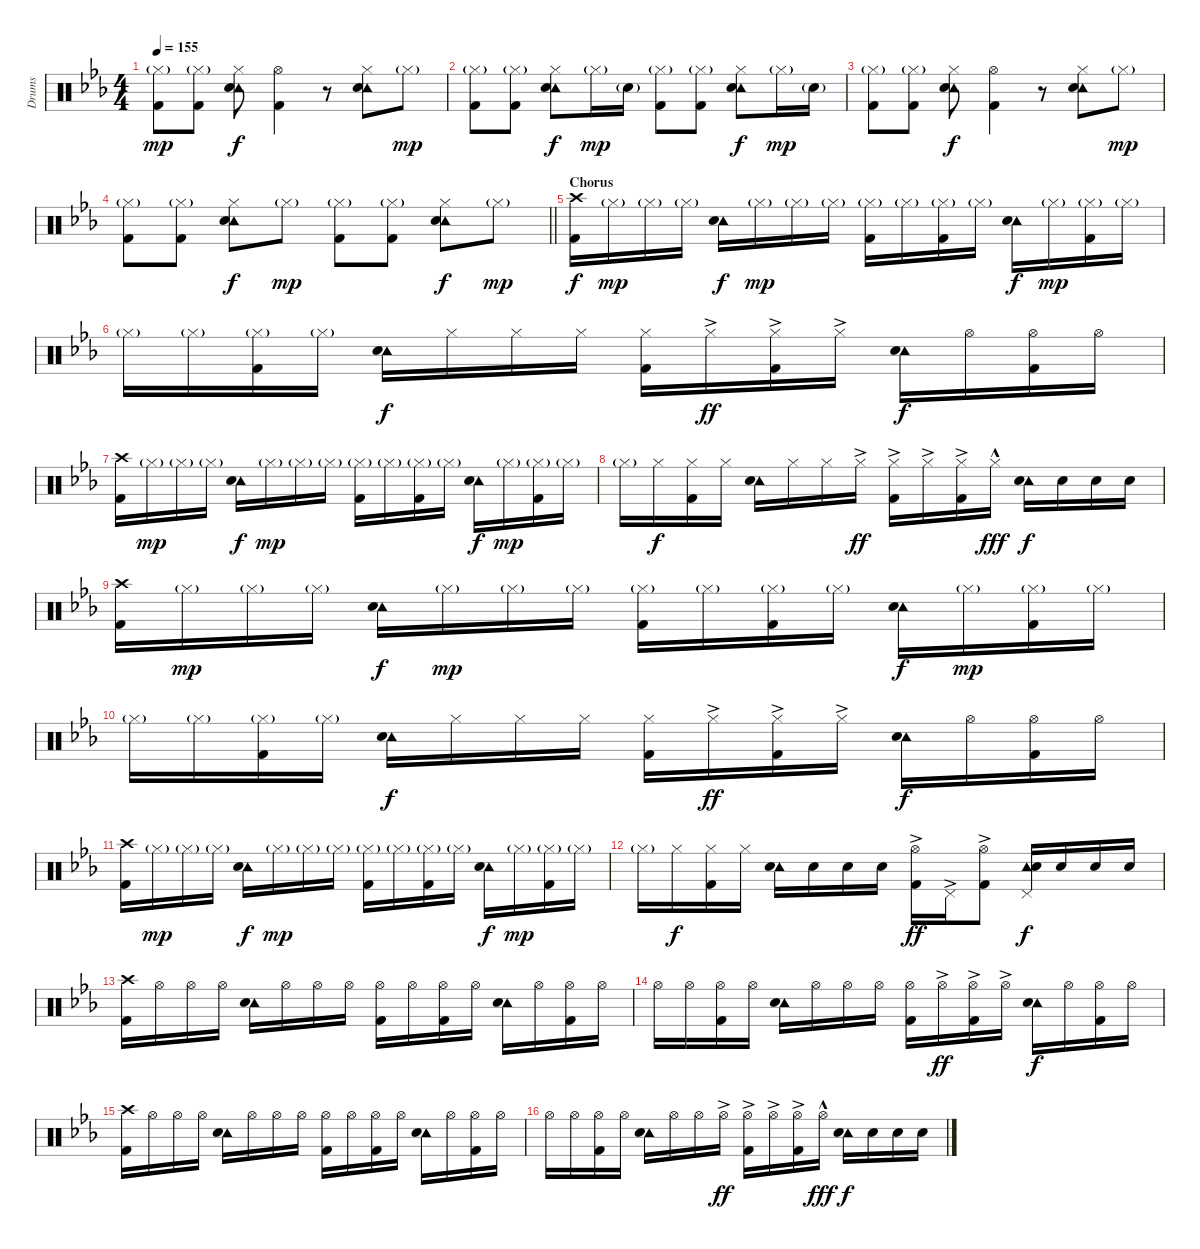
\track ("Drums" "Drums") {instrument percussion}
\staff {score}
\articulation defaults
\ts (4 4)
\tempo 155
\clef neutral
\ks eb
("Hi-Hat (closed)"{g} "Kick (hit) 2").8{dy mp} ("Hi-Hat (closed)"{g} "Kick (hit) 2").8 ("Tambourine (hit)" "Hi-Hat (closed)" "Snare (hit) 2").8{dy f} ("Hi-Hat (open)" "Kick (hit) 2").4 r.8 ("Tambourine (hit)" "Hi-Hat (closed)" "Snare (hit) 2").8 "Hi-Hat (closed)"{g}.8{dy mp} |
("Hi-Hat (closed)"{g} "Kick (hit) 2").8 ("Hi-Hat (closed)"{g} "Kick (hit) 2").8 ("Tambourine (hit)" "Hi-Hat (closed)" "Snare (hit) 2").8{dy f} "Hi-Hat (closed)"{g}.16{dy mp} "Snare (hit) 2"{g}.16 ("Hi-Hat (closed)"{g} "Kick (hit) 2").8 ("Hi-Hat (closed)"{g} "Kick (hit) 2").8 ("Tambourine (hit)" "Hi-Hat (closed)" "Snare (hit) 2").8{dy f} "Hi-Hat (closed)"{g}.16{dy mp} "Snare (hit) 2"{g}.16 |
("Hi-Hat (closed)"{g} "Kick (hit) 2").8 ("Hi-Hat (closed)"{g} "Kick (hit) 2").8 ("Tambourine (hit)" "Hi-Hat (closed)" "Snare (hit) 2").8{dy f} ("Hi-Hat (open)" "Kick (hit) 2").4 r.8 ("Tambourine (hit)" "Hi-Hat (closed)" "Snare (hit) 2").8 "Hi-Hat (closed)"{g}.8{dy mp} |
\barLineRight lightlight
("Hi-Hat (closed)"{g} "Kick (hit) 2").8 ("Hi-Hat (closed)"{g} "Kick (hit) 2").8 ("Tambourine (hit)" "Hi-Hat (closed)" "Snare (hit) 2").8{dy f} "Hi-Hat (closed)"{g}.8{dy mp} ("Hi-Hat (closed)"{g} "Kick (hit) 2").8 ("Hi-Hat (closed)"{g} "Kick (hit) 2").8 ("Tambourine (hit)" "Hi-Hat (closed)" "Snare (hit) 2").8{dy f} "Hi-Hat (closed)"{g}.8{dy mp} |
\section ("" "Chorus")
("Crash high (hit)" "Kick (hit) 2").16{dy f} "Hi-Hat (closed)"{g}.16{dy mp} "Hi-Hat (closed)"{g}.16 "Hi-Hat (closed)"{g}.16 ("Tambourine (hit)" "Snare (hit) 2").16{dy f} "Hi-Hat (closed)"{g}.16{dy mp} "Hi-Hat (closed)"{g}.16 "Hi-Hat (closed)"{g}.16 ("Hi-Hat (closed)"{g} "Kick (hit) 2").16 "Hi-Hat (closed)"{g}.16 ("Hi-Hat (closed)"{g} "Kick (hit) 2").16 "Hi-Hat (closed)"{g}.16 ("Tambourine (hit)" "Snare (hit) 2").16{dy f} "Hi-Hat (closed)"{g}.16{dy mp} ("Hi-Hat (closed)"{g} "Kick (hit) 2").16 "Hi-Hat (closed)"{g}.16 |
"Hi-Hat (closed)"{g}.16 "Hi-Hat (closed)"{g}.16 ("Hi-Hat (closed)"{g} "Kick (hit) 2").16 "Hi-Hat (closed)"{g}.16 ("Tambourine (hit)" "Snare (hit) 2").16{dy f} "Hi-Hat (closed)".16 "Hi-Hat (closed)".16 "Hi-Hat (closed)".16 ("Hi-Hat (closed)" "Kick (hit) 2").16 "Hi-Hat (closed)"{ac}.16{dy ff} ("Hi-Hat (closed)"{ac} "Kick (hit) 2").16 "Hi-Hat (closed)"{ac}.16 ("Tambourine (hit)" "Snare (hit) 2").16{dy f} "Hi-Hat (open)".16 ("Hi-Hat (open)" "Kick (hit) 2").16 "Hi-Hat (open)".16 |
("Crash high (hit)" "Kick (hit) 2").16 "Hi-Hat (closed)"{g}.16{dy mp} "Hi-Hat (closed)"{g}.16 "Hi-Hat (closed)"{g}.16 ("Tambourine (hit)" "Snare (hit) 2").16{dy f} "Hi-Hat (closed)"{g}.16{dy mp} "Hi-Hat (closed)"{g}.16 "Hi-Hat (closed)"{g}.16 ("Hi-Hat (closed)"{g} "Kick (hit) 2").16 "Hi-Hat (closed)"{g}.16 ("Hi-Hat (closed)"{g} "Kick (hit) 2").16 "Hi-Hat (closed)"{g}.16 ("Tambourine (hit)" "Snare (hit) 2").16{dy f} "Hi-Hat (closed)"{g}.16{dy mp} ("Hi-Hat (closed)"{g} "Kick (hit) 2").16 "Hi-Hat (closed)"{g}.16 |
"Hi-Hat (closed)"{g}.16 "Hi-Hat (closed)".16{dy f} ("Hi-Hat (closed)" "Kick (hit) 2").16 "Hi-Hat (closed)".16 ("Tambourine (hit)" "Snare (hit) 2").16 "Hi-Hat (closed)".16 "Hi-Hat (closed)".16 "Hi-Hat (closed)"{ac}.16{dy ff} ("Hi-Hat (closed)"{ac} "Kick (hit) 2").16 "Hi-Hat (closed)"{ac}.16 ("Hi-Hat (closed)"{ac} "Kick (hit) 2").16 "Hi-Hat (closed)"{hac}.16{dy fff} ("Tambourine (hit)" "Snare (hit) 2").16{dy f} "Snare (hit) 2".16 "Snare (hit) 2".16 "Snare (hit) 2".16 |
("Crash high (hit)" "Kick (hit) 2").16 "Hi-Hat (closed)"{g}.16{dy mp} "Hi-Hat (closed)"{g}.16 "Hi-Hat (closed)"{g}.16 ("Tambourine (hit)" "Snare (hit) 2").16{dy f} "Hi-Hat (closed)"{g}.16{dy mp} "Hi-Hat (closed)"{g}.16 "Hi-Hat (closed)"{g}.16 ("Hi-Hat (closed)"{g} "Kick (hit) 2").16 "Hi-Hat (closed)"{g}.16 ("Hi-Hat (closed)"{g} "Kick (hit) 2").16 "Hi-Hat (closed)"{g}.16 ("Tambourine (hit)" "Snare (hit) 2").16{dy f} "Hi-Hat (closed)"{g}.16{dy mp} ("Hi-Hat (closed)"{g} "Kick (hit) 2").16 "Hi-Hat (closed)"{g}.16 |
"Hi-Hat (closed)"{g}.16 "Hi-Hat (closed)"{g}.16 ("Hi-Hat (closed)"{g} "Kick (hit) 2").16 "Hi-Hat (closed)"{g}.16 ("Tambourine (hit)" "Snare (hit) 2").16{dy f} "Hi-Hat (closed)".16 "Hi-Hat (closed)".16 "Hi-Hat (closed)".16 ("Hi-Hat (closed)" "Kick (hit) 2").16 "Hi-Hat (closed)"{ac}.16{dy ff} ("Hi-Hat (closed)"{ac} "Kick (hit) 2").16 "Hi-Hat (closed)"{ac}.16 ("Tambourine (hit)" "Snare (hit) 2").16{dy f} "Hi-Hat (open)".16 ("Hi-Hat (open)" "Kick (hit) 2").16 "Hi-Hat (open)".16 |
("Crash high (hit)" "Kick (hit) 2").16 "Hi-Hat (closed)"{g}.16{dy mp} "Hi-Hat (closed)"{g}.16 "Hi-Hat (closed)"{g}.16 ("Tambourine (hit)" "Snare (hit) 2").16{dy f} "Hi-Hat (closed)"{g}.16{dy mp} "Hi-Hat (closed)"{g}.16 "Hi-Hat (closed)"{g}.16 ("Hi-Hat (closed)"{g} "Kick (hit) 2").16 "Hi-Hat (closed)"{g}.16 ("Hi-Hat (closed)"{g} "Kick (hit) 2").16 "Hi-Hat (closed)"{g}.16 ("Tambourine (hit)" "Snare (hit) 2").16{dy f} "Hi-Hat (closed)"{g}.16{dy mp} ("Hi-Hat (closed)"{g} "Kick (hit) 2").16 "Hi-Hat (closed)"{g}.16 |
"Hi-Hat (closed)"{g}.16 "Hi-Hat (closed)".16{dy f} ("Hi-Hat (closed)" "Kick (hit) 2").16 "Hi-Hat (closed)".16 ("Tambourine (hit)" "Snare (hit) 2").16 "Snare (hit) 2".16 "Snare (hit) 2".16 "Snare (hit) 2".16 ("Hi-Hat (open)"{ac} "Kick (hit) 2").16{dy ff} "Pedal Hi-Hat (hit)"{ac}.16 ("Hi-Hat (open)"{ac} "Kick (hit) 2").8 ("Tambourine (hit)" "Pedal Hi-Hat (hit)" "Snare (hit) 2").16{dy f} "Snare (hit) 2".16 "Snare (hit) 2".16 "Snare (hit) 2".16 |
("Crash high (hit)" "Kick (hit) 2").16 "Hi-Hat (open)".16 "Hi-Hat (open)".16 "Hi-Hat (open)".16 ("Tambourine (hit)" "Snare (hit) 2").16 "Hi-Hat (open)".16 "Hi-Hat (open)".16 "Hi-Hat (open)".16 ("Hi-Hat (open)" "Kick (hit) 2").16 "Hi-Hat (open)".16 ("Hi-Hat (open)" "Kick (hit) 2").16 "Hi-Hat (open)".16 ("Tambourine (hit)" "Snare (hit) 2").16 "Hi-Hat (open)".16 ("Hi-Hat (open)" "Kick (hit) 2").16 "Hi-Hat (open)".16 |
"Hi-Hat (open)".16 "Hi-Hat (open)".16 ("Hi-Hat (open)" "Kick (hit) 2").16 "Hi-Hat (open)".16 ("Tambourine (hit)" "Snare (hit) 2").16 "Hi-Hat (open)".16 "Hi-Hat (open)".16 "Hi-Hat (open)".16 ("Hi-Hat (open)" "Kick (hit) 2").16 "Hi-Hat (open)"{ac}.16{dy ff} ("Hi-Hat (open)"{ac} "Kick (hit) 2").16 "Hi-Hat (open)"{ac}.16 ("Tambourine (hit)" "Snare (hit) 2").16{dy f} "Hi-Hat (open)".16 ("Hi-Hat (open)" "Kick (hit) 2").16 "Hi-Hat (open)".16 |
("Crash high (hit)" "Kick (hit) 2").16 "Hi-Hat (open)".16 "Hi-Hat (open)".16 "Hi-Hat (open)".16 ("Tambourine (hit)" "Snare (hit) 2").16 "Hi-Hat (open)".16 "Hi-Hat (open)".16 "Hi-Hat (open)".16 ("Hi-Hat (open)" "Kick (hit) 2").16 "Hi-Hat (open)".16 ("Hi-Hat (open)" "Kick (hit) 2").16 "Hi-Hat (open)".16 ("Tambourine (hit)" "Snare (hit) 2").16 "Hi-Hat (open)".16 ("Hi-Hat (open)" "Kick (hit) 2").16 "Hi-Hat (open)".16 |
"Hi-Hat (open)".16 "Hi-Hat (open)".16 ("Hi-Hat (open)" "Kick (hit) 2").16 "Hi-Hat (open)".16 ("Tambourine (hit)" "Snare (hit) 2").16 "Hi-Hat (open)".16 "Hi-Hat (open)".16 "Hi-Hat (open)"{ac}.16{dy ff} ("Hi-Hat (open)"{ac} "Kick (hit) 2").16 "Hi-Hat (open)"{ac}.16 ("Hi-Hat (open)"{ac} "Kick (hit) 2").16 "Hi-Hat (open)"{hac}.16{dy fff} ("Tambourine (hit)" "Snare (hit) 2").16{dy f} "Snare (hit) 2".16 "Snare (hit) 2".16 "Snare (hit) 2".16
